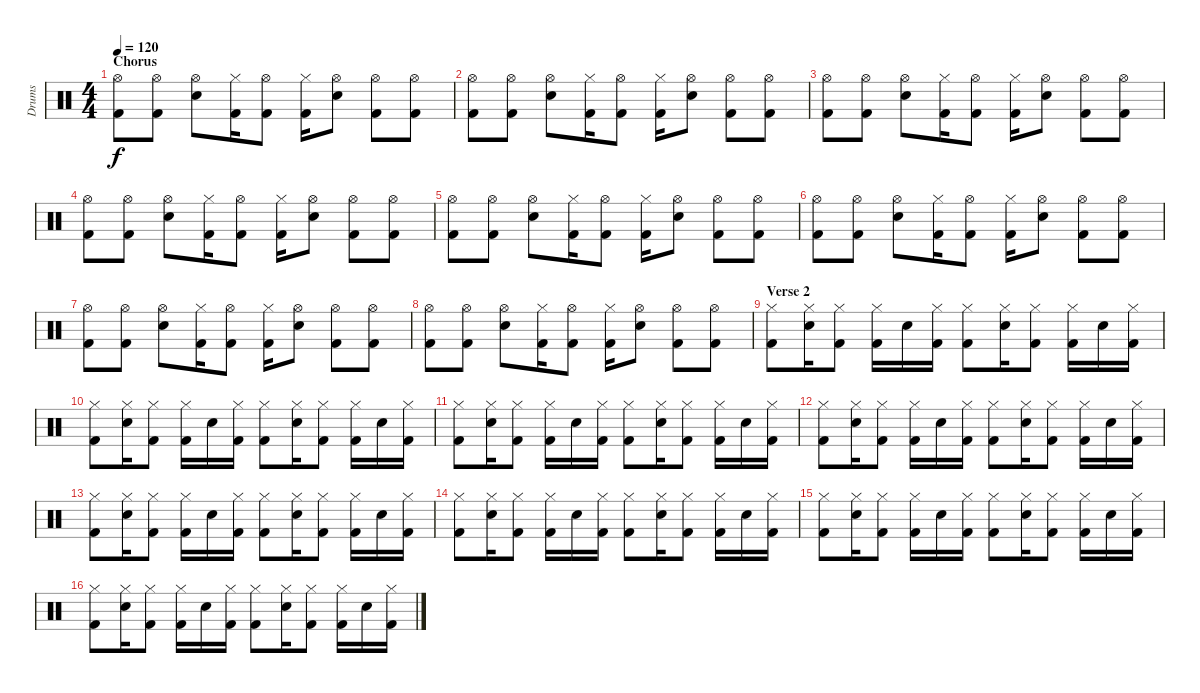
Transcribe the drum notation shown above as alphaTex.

\track ("Drums" "Drums") {instrument percussion}
\staff {score}
\articulation defaults
\ts (4 4)
\section ("" "Chorus")
\tempo 120
\clef neutral
\ks c
("Hi-Hat (open)" "Kick (hit) 2").8{dy f} ("Hi-Hat (open)" "Kick (hit) 2").8 ("Hi-Hat (open)" "Electric Snare (hit)").8 ("Hi-Hat (closed)" "Kick (hit) 2").16 ("Hi-Hat (open)" "Kick (hit) 2").8 ("Hi-Hat (closed)" "Kick (hit) 2").16 ("Hi-Hat (open)" "Electric Snare (hit)").8 ("Hi-Hat (open)" "Kick (hit) 2").8 ("Hi-Hat (open)" "Kick (hit) 2").8 |
("Hi-Hat (open)" "Kick (hit) 2").8 ("Hi-Hat (open)" "Kick (hit) 2").8 ("Hi-Hat (open)" "Electric Snare (hit)").8 ("Hi-Hat (closed)" "Kick (hit) 2").16 ("Hi-Hat (open)" "Kick (hit) 2").8 ("Hi-Hat (closed)" "Kick (hit) 2").16 ("Hi-Hat (open)" "Electric Snare (hit)").8 ("Hi-Hat (open)" "Kick (hit) 2").8 ("Hi-Hat (open)" "Kick (hit) 2").8 |
("Hi-Hat (open)" "Kick (hit) 2").8 ("Hi-Hat (open)" "Kick (hit) 2").8 ("Hi-Hat (open)" "Electric Snare (hit)").8 ("Hi-Hat (closed)" "Kick (hit) 2").16 ("Hi-Hat (open)" "Kick (hit) 2").8 ("Hi-Hat (closed)" "Kick (hit) 2").16 ("Hi-Hat (open)" "Electric Snare (hit)").8 ("Hi-Hat (open)" "Kick (hit) 2").8 ("Hi-Hat (open)" "Kick (hit) 2").8 |
("Hi-Hat (open)" "Kick (hit) 2").8 ("Hi-Hat (open)" "Kick (hit) 2").8 ("Hi-Hat (open)" "Electric Snare (hit)").8 ("Hi-Hat (closed)" "Kick (hit) 2").16 ("Hi-Hat (open)" "Kick (hit) 2").8 ("Hi-Hat (closed)" "Kick (hit) 2").16 ("Hi-Hat (open)" "Electric Snare (hit)").8 ("Hi-Hat (open)" "Kick (hit) 2").8 ("Hi-Hat (open)" "Kick (hit) 2").8 |
("Hi-Hat (open)" "Kick (hit) 2").8 ("Hi-Hat (open)" "Kick (hit) 2").8 ("Hi-Hat (open)" "Electric Snare (hit)").8 ("Hi-Hat (closed)" "Kick (hit) 2").16 ("Hi-Hat (open)" "Kick (hit) 2").8 ("Hi-Hat (closed)" "Kick (hit) 2").16 ("Hi-Hat (open)" "Electric Snare (hit)").8 ("Hi-Hat (open)" "Kick (hit) 2").8 ("Hi-Hat (open)" "Kick (hit) 2").8 |
("Hi-Hat (open)" "Kick (hit) 2").8 ("Hi-Hat (open)" "Kick (hit) 2").8 ("Hi-Hat (open)" "Electric Snare (hit)").8 ("Hi-Hat (closed)" "Kick (hit) 2").16 ("Hi-Hat (open)" "Kick (hit) 2").8 ("Hi-Hat (closed)" "Kick (hit) 2").16 ("Hi-Hat (open)" "Electric Snare (hit)").8 ("Hi-Hat (open)" "Kick (hit) 2").8 ("Hi-Hat (open)" "Kick (hit) 2").8 |
("Hi-Hat (open)" "Kick (hit) 2").8 ("Hi-Hat (open)" "Kick (hit) 2").8 ("Hi-Hat (open)" "Electric Snare (hit)").8 ("Hi-Hat (closed)" "Kick (hit) 2").16 ("Hi-Hat (open)" "Kick (hit) 2").8 ("Hi-Hat (closed)" "Kick (hit) 2").16 ("Hi-Hat (open)" "Electric Snare (hit)").8 ("Hi-Hat (open)" "Kick (hit) 2").8 ("Hi-Hat (open)" "Kick (hit) 2").8 |
("Hi-Hat (open)" "Kick (hit) 2").8 ("Hi-Hat (open)" "Kick (hit) 2").8 ("Hi-Hat (open)" "Electric Snare (hit)").8 ("Hi-Hat (closed)" "Kick (hit) 2").16 ("Hi-Hat (open)" "Kick (hit) 2").8 ("Hi-Hat (closed)" "Kick (hit) 2").16 ("Hi-Hat (open)" "Electric Snare (hit)").8 ("Hi-Hat (open)" "Kick (hit) 2").8 ("Hi-Hat (open)" "Kick (hit) 2").8 |
\section ("" "Verse 2")
("Hi-Hat (closed)" "Kick (hit) 2").8 ("Hi-Hat (closed)" "Electric Snare (hit)").16 ("Hi-Hat (closed)" "Kick (hit) 2").8 ("Hi-Hat (closed)" "Kick (hit) 2").16 "Electric Snare (hit)".16 ("Hi-Hat (closed)" "Kick (hit) 2").16 ("Hi-Hat (closed)" "Kick (hit) 2").8 ("Hi-Hat (closed)" "Electric Snare (hit)").16 ("Hi-Hat (closed)" "Kick (hit) 2").8 ("Hi-Hat (closed)" "Kick (hit) 2").16 "Electric Snare (hit)".16 ("Hi-Hat (closed)" "Kick (hit) 2").16 |
("Hi-Hat (closed)" "Kick (hit) 2").8 ("Hi-Hat (closed)" "Electric Snare (hit)").16 ("Hi-Hat (closed)" "Kick (hit) 2").8 ("Hi-Hat (closed)" "Kick (hit) 2").16 "Electric Snare (hit)".16 ("Hi-Hat (closed)" "Kick (hit) 2").16 ("Hi-Hat (closed)" "Kick (hit) 2").8 ("Hi-Hat (closed)" "Electric Snare (hit)").16 ("Hi-Hat (closed)" "Kick (hit) 2").8 ("Hi-Hat (closed)" "Kick (hit) 2").16 "Electric Snare (hit)".16 ("Hi-Hat (closed)" "Kick (hit) 2").16 |
("Hi-Hat (closed)" "Kick (hit) 2").8 ("Hi-Hat (closed)" "Electric Snare (hit)").16 ("Hi-Hat (closed)" "Kick (hit) 2").8 ("Hi-Hat (closed)" "Kick (hit) 2").16 "Electric Snare (hit)".16 ("Hi-Hat (closed)" "Kick (hit) 2").16 ("Hi-Hat (closed)" "Kick (hit) 2").8 ("Hi-Hat (closed)" "Electric Snare (hit)").16 ("Hi-Hat (closed)" "Kick (hit) 2").8 ("Hi-Hat (closed)" "Kick (hit) 2").16 "Electric Snare (hit)".16 ("Hi-Hat (closed)" "Kick (hit) 2").16 |
("Hi-Hat (closed)" "Kick (hit) 2").8 ("Hi-Hat (closed)" "Electric Snare (hit)").16 ("Hi-Hat (closed)" "Kick (hit) 2").8 ("Hi-Hat (closed)" "Kick (hit) 2").16 "Electric Snare (hit)".16 ("Hi-Hat (closed)" "Kick (hit) 2").16 ("Hi-Hat (closed)" "Kick (hit) 2").8 ("Hi-Hat (closed)" "Electric Snare (hit)").16 ("Hi-Hat (closed)" "Kick (hit) 2").8 ("Hi-Hat (closed)" "Kick (hit) 2").16 "Electric Snare (hit)".16 ("Hi-Hat (closed)" "Kick (hit) 2").16 |
("Hi-Hat (closed)" "Kick (hit) 2").8 ("Hi-Hat (closed)" "Electric Snare (hit)").16 ("Hi-Hat (closed)" "Kick (hit) 2").8 ("Hi-Hat (closed)" "Kick (hit) 2").16 "Electric Snare (hit)".16 ("Hi-Hat (closed)" "Kick (hit) 2").16 ("Hi-Hat (closed)" "Kick (hit) 2").8 ("Hi-Hat (closed)" "Electric Snare (hit)").16 ("Hi-Hat (closed)" "Kick (hit) 2").8 ("Hi-Hat (closed)" "Kick (hit) 2").16 "Electric Snare (hit)".16 ("Hi-Hat (closed)" "Kick (hit) 2").16 |
("Hi-Hat (closed)" "Kick (hit) 2").8 ("Hi-Hat (closed)" "Electric Snare (hit)").16 ("Hi-Hat (closed)" "Kick (hit) 2").8 ("Hi-Hat (closed)" "Kick (hit) 2").16 "Electric Snare (hit)".16 ("Hi-Hat (closed)" "Kick (hit) 2").16 ("Hi-Hat (closed)" "Kick (hit) 2").8 ("Hi-Hat (closed)" "Electric Snare (hit)").16 ("Hi-Hat (closed)" "Kick (hit) 2").8 ("Hi-Hat (closed)" "Kick (hit) 2").16 "Electric Snare (hit)".16 ("Hi-Hat (closed)" "Kick (hit) 2").16 |
("Hi-Hat (closed)" "Kick (hit) 2").8 ("Hi-Hat (closed)" "Electric Snare (hit)").16 ("Hi-Hat (closed)" "Kick (hit) 2").8 ("Hi-Hat (closed)" "Kick (hit) 2").16 "Electric Snare (hit)".16 ("Hi-Hat (closed)" "Kick (hit) 2").16 ("Hi-Hat (closed)" "Kick (hit) 2").8 ("Hi-Hat (closed)" "Electric Snare (hit)").16 ("Hi-Hat (closed)" "Kick (hit) 2").8 ("Hi-Hat (closed)" "Kick (hit) 2").16 "Electric Snare (hit)".16 ("Hi-Hat (closed)" "Kick (hit) 2").16 |
("Hi-Hat (closed)" "Kick (hit) 2").8 ("Hi-Hat (closed)" "Electric Snare (hit)").16 ("Hi-Hat (closed)" "Kick (hit) 2").8 ("Hi-Hat (closed)" "Kick (hit) 2").16 "Electric Snare (hit)".16 ("Hi-Hat (closed)" "Kick (hit) 2").16 ("Hi-Hat (closed)" "Kick (hit) 2").8 ("Hi-Hat (closed)" "Electric Snare (hit)").16 ("Hi-Hat (closed)" "Kick (hit) 2").8 ("Hi-Hat (closed)" "Kick (hit) 2").16 "Electric Snare (hit)".16 ("Hi-Hat (closed)" "Kick (hit) 2").16
